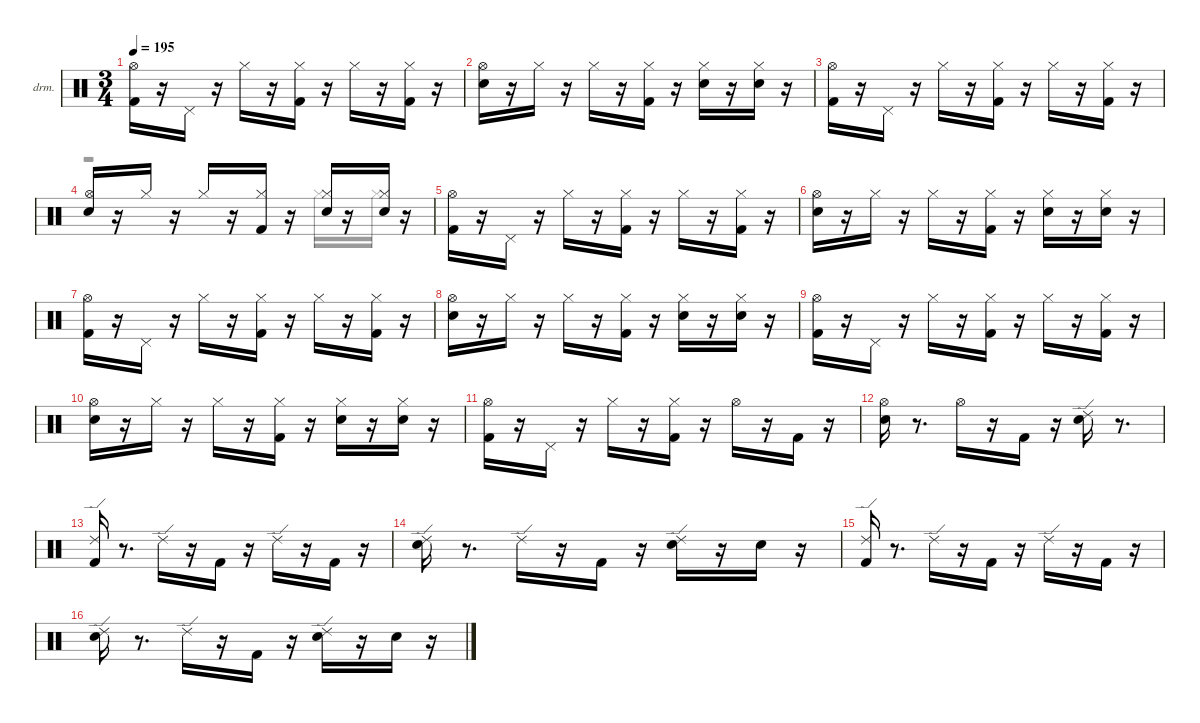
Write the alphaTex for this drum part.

\hideDynamics
\bracketExtendMode nobrackets
\firstSystemTrackNameOrientation horizontal
\otherSystemsTrackNameOrientation horizontal
\track ("EZdrummer 3" "drm.") {instrument percussion}
\staff {score}
\articulation defaults
\voice
\ts (3 4)
\tempo 195
\clef neutral
\ks aminor
("Kick (hit) 2" "Hi-Hat (open)"{acc #}).16{dy ff beam Down} r.16{beam Down} "Pedal Hi-Hat (hit)"{acc #}.16{beam Up} r.16{beam Up} "Hi-Hat (closed)"{acc #}.16{dy pp beam Down} r.16{beam Down} ("Kick (hit) 2" "Hi-Hat (closed)"{acc #}).16{dy ff beam Down} r.16{beam Down} "Hi-Hat (closed)"{acc #}.16{dy pp beam Down} r.16{beam Down} ("Kick (hit) 2" "Hi-Hat (closed)"{acc #}).16{dy ff beam Down} r.16{beam Down} |
("Snare (hit) 2" "Hi-Hat (open)"{acc #}).16{beam Down} r.16{beam Down} "Hi-Hat (closed)"{acc #}.16{dy f beam Down} r.16{beam Down} "Hi-Hat (closed)"{acc #}.16{dy fff beam Down} r.16{beam Down} ("Kick (hit) 2" "Hi-Hat (closed)"{acc #}).16{dy ff beam Down} r.16{beam Down} ("Snare (hit) 2" "Hi-Hat (closed)"{acc #}).16{beam Down} r.16{beam Down} ("Snare (hit) 2" "Hi-Hat (closed)"{acc #}).16{dy ppp beam Down} r.16{beam Down} |
("Kick (hit) 2" "Hi-Hat (open)"{acc #}).16{dy fff beam Down} r.16{beam Down} "Pedal Hi-Hat (hit)"{acc #}.16{dy ff beam Up} r.16{beam Up} "Hi-Hat (closed)"{acc #}.16{dy pp beam Down} r.16{beam Down} ("Kick (hit) 2" "Hi-Hat (closed)"{acc #}).16{dy ff beam Down} r.16{beam Down} "Hi-Hat (closed)"{acc #}.16{dy pp beam Down} r.16{beam Down} ("Kick (hit) 2" "Hi-Hat (closed)"{acc #}).16{dy mf beam Down} r.16{beam Down} |
("Snare (hit) 2" "Hi-Hat (open)"{acc #}).16{dy ff beam Up} r.16{beam Up} "Hi-Hat (closed)"{acc #}.16{dy f beam Up} r.16{beam Up} "Hi-Hat (closed)"{acc #}.16{dy fff beam Up} r.16{beam Up} ("Kick (hit) 2" "Hi-Hat (closed)"{acc #}).16{dy ff beam Up} r.16{beam Up} ("Snare (hit) 2" "Hi-Hat (closed)"{acc #}).16{dy f beam Up} r.16{beam Up} ("Snare (hit) 2" "Hi-Hat (closed)"{acc #}).16{dy pp beam Up} r.16{beam Up} |
("Kick (hit) 2" "Hi-Hat (open)"{acc #}).16{dy fff beam Down} r.16{beam Down} "Pedal Hi-Hat (hit)"{acc #}.16{dy ff beam Up} r.16{beam Up} "Hi-Hat (closed)"{acc #}.16{dy pp beam Down} r.16{beam Down} ("Kick (hit) 2" "Hi-Hat (closed)"{acc #}).16{dy f beam Down} r.16{beam Down} "Hi-Hat (closed)"{acc #}.16{dy pp beam Down} r.16{beam Down} ("Kick (hit) 2" "Hi-Hat (closed)"{acc #}).16{dy mf beam Down} r.16{beam Down} |
("Snare (hit) 2" "Hi-Hat (open)"{acc #}).16{dy ff beam Down} r.16{beam Down} "Hi-Hat (closed)"{acc #}.16{dy f beam Down} r.16{beam Down} "Hi-Hat (closed)"{acc #}.16{dy fff beam Down} r.16{beam Down} ("Kick (hit) 2" "Hi-Hat (closed)"{acc #}).16{dy ff beam Down} r.16{beam Down} ("Snare (hit) 2" "Hi-Hat (closed)"{acc #}).16{beam Down} r.16{beam Down} ("Snare (hit) 2" "Hi-Hat (closed)"{acc #}).16{dy ppp beam Down} r.16{beam Down} |
("Kick (hit) 2" "Hi-Hat (open)"{acc #}).16{dy ff beam Down} r.16{beam Down} "Pedal Hi-Hat (hit)"{acc #}.16{beam Up} r.16{beam Up} "Hi-Hat (closed)"{acc #}.16{dy pp beam Down} r.16{beam Down} ("Kick (hit) 2" "Hi-Hat (closed)"{acc #}).16{dy ff beam Down} r.16{beam Down} "Hi-Hat (closed)"{acc #}.16{dy pp beam Down} r.16{beam Down} ("Kick (hit) 2" "Hi-Hat (closed)"{acc #}).16{dy ff beam Down} r.16{beam Down} |
("Snare (hit) 2" "Hi-Hat (open)"{acc #}).16{beam Down} r.16{beam Down} "Hi-Hat (closed)"{acc #}.16{dy f beam Down} r.16{beam Down} "Hi-Hat (closed)"{acc #}.16{dy fff beam Down} r.16{beam Down} ("Kick (hit) 2" "Hi-Hat (closed)"{acc #}).16{dy pp beam Down} r.16{beam Down} ("Snare (hit) 2" "Hi-Hat (closed)"{acc #}).16{dy ff beam Down} r.16{beam Down} ("Snare (hit) 2" "Hi-Hat (closed)"{acc #}).16{dy pp beam Down} r.16{beam Down} |
("Kick (hit) 2" "Hi-Hat (open)"{acc #}).16{dy ff beam Down} r.16{beam Down} "Pedal Hi-Hat (hit)"{acc #}.16{beam Up} r.16{beam Up} "Hi-Hat (closed)"{acc #}.16{dy pp beam Down} r.16{beam Down} ("Kick (hit) 2" "Hi-Hat (closed)"{acc #}).16{dy f beam Down} r.16{beam Down} "Hi-Hat (closed)"{acc #}.16{dy pp beam Down} r.16{beam Down} ("Kick (hit) 2" "Hi-Hat (closed)"{acc #}).16{dy mf beam Down} r.16{beam Down} |
("Snare (hit) 2" "Hi-Hat (open)"{acc #}).16{dy ff beam Down} r.16{beam Down} "Hi-Hat (closed)"{acc #}.16{dy f beam Down} r.16{beam Down} "Hi-Hat (closed)"{acc #}.16{dy fff beam Down} r.16{beam Down} ("Kick (hit) 2" "Hi-Hat (closed)"{acc #}).16{dy pp beam Down} r.16{beam Down} ("Snare (hit) 2" "Hi-Hat (closed)"{acc #}).16{dy f beam Down} r.16{beam Down} ("Snare (hit) 2" "Hi-Hat (closed)"{acc #}).16{dy pp beam Down} r.16{beam Down} |
("Kick (hit) 2" "Hi-Hat (open)"{acc #}).16{dy ff beam Down} r.16{beam Down} "Pedal Hi-Hat (hit)"{acc #}.16{beam Up} r.16{beam Up} "Hi-Hat (closed)"{acc #}.16{dy pp beam Down} r.16{beam Down} ("Kick (hit) 2" "Hi-Hat (closed)"{acc #}).16{dy ff beam Down} r.16{beam Down} "Hi-Hat (open)"{acc #}.16{dy mf beam Down} r.16{beam Down} "Kick (hit) 2".16{dy ff beam Up} r.16{beam Up} |
("Snare (hit) 2" "Hi-Hat (open)"{acc #}).16{beam Down} r.8{d beam Down} "Hi-Hat (open)"{acc #}.16{dy f beam Down} r.16{beam Down} "Kick (hit) 2".16{dy ff beam Up} r.16{beam Up} ("Snare (hit) 2" "Ride (edge) 2").16{dy f beam Down} r.8{d beam Down} |
("Kick (hit) 2" "Ride (edge) 2").16{dy ff beam Up} r.8{d beam Up} "Ride (edge) 2".16{dy p beam Down} r.16{beam Down} "Kick (hit) 2".16{dy ff beam Up} r.16{beam Up} "Ride (edge) 2".16{dy mf beam Down} r.16{beam Down} "Kick (hit) 2".16{dy ff beam Up} r.16{beam Up} |
("Snare (hit) 2" "Ride (edge) 2").16{beam Down} r.8{d beam Down} "Ride (edge) 2".16{dy p beam Down} r.16{beam Down} "Kick (hit) 2".16{dy ff beam Up} r.16{beam Up} ("Snare (hit) 2" "Ride (edge) 2").16{beam Down} r.16{beam Down} "Snare (hit) 2".16{dy ppp beam Down} r.16{beam Down} |
("Kick (hit) 2" "Ride (edge) 2").16{dy ff beam Up} r.8{d beam Up} "Ride (edge) 2".16{dy p beam Down} r.16{beam Down} "Kick (hit) 2".16{dy ff beam Up} r.16{beam Up} "Ride (edge) 2".16{dy mf beam Down} r.16{beam Down} "Kick (hit) 2".16{dy ff beam Up} r.16{beam Up} |
("Snare (hit) 2" "Ride (edge) 2").16{beam Down} r.8{d beam Down} "Ride (edge) 2".16{dy p beam Down} r.16{beam Down} "Kick (hit) 2".16{dy ff beam Up} r.16{beam Up} ("Snare (hit) 2" "Ride (edge) 2").16{beam Down} r.16{beam Down} "Snare (hit) 2".16{dy ppp beam Down} r.16{beam Down}
\voice
\clef neutral
\ottava regular
\simile none
\ks aminor
|
|
|
r.2{beam Down} "Hi-Hat (closed)"{acc #}.16{dy ff beam Down} r.16{beam Down} "Hi-Hat (closed)"{acc #}.16{dy f beam Down} |
|
|
|
|
|
|
|
|
|
|
|
